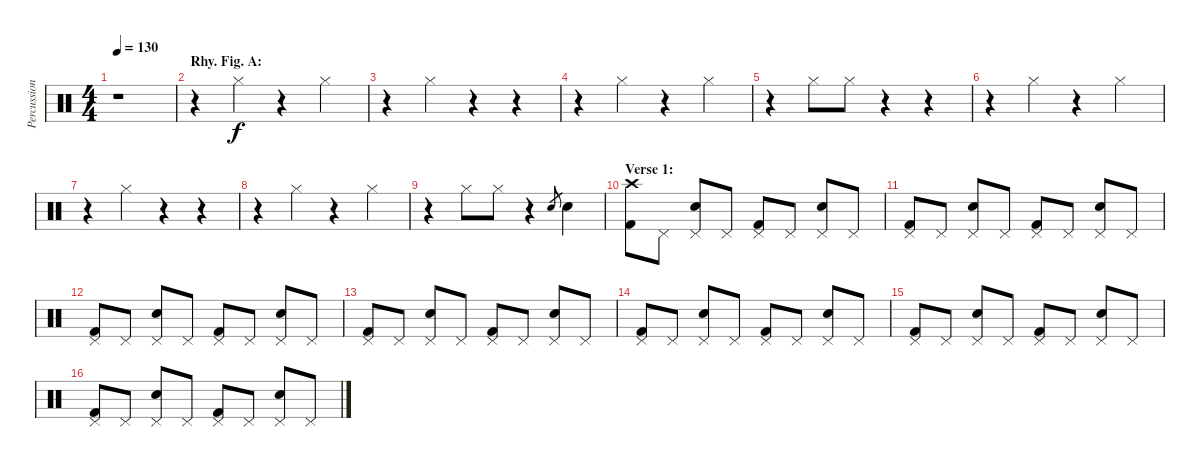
\track ("Percussion" "Percussion") {instrument percussion}
\staff {score}
\articulation defaults
\ts (4 4)
\tempo 130
\clef neutral
\ks c
r.1{dy f} |
\section ("" "Rhy. Fig. A:")
r.4 "Hi-Hat (closed)".4 r.4 "Hi-Hat (closed)".4 |
r.4 "Hi-Hat (closed)".4 r.4 r.4 |
r.4 "Hi-Hat (closed)".4 r.4 "Hi-Hat (closed)".4 |
r.4 "Hi-Hat (closed)".8 "Hi-Hat (closed)".8 r.4 r.4 |
r.4 "Hi-Hat (closed)".4 r.4 "Hi-Hat (closed)".4 |
r.4 "Hi-Hat (closed)".4 r.4 r.4 |
r.4 "Hi-Hat (closed)".4 r.4 "Hi-Hat (closed)".4 |
r.4 "Hi-Hat (closed)".8 "Hi-Hat (closed)".8 r.4 "Electric Snare (hit)".8{gr} "Electric Snare (hit)".4 |
\section ("" "Verse 1:")
("Crash high (hit)" "Kick (hit) 2").8 "Pedal Hi-Hat (hit)".8 ("Pedal Hi-Hat (hit)" "Electric Snare (hit)").8 "Pedal Hi-Hat (hit)".8 ("Pedal Hi-Hat (hit)" "Kick (hit) 2").8 "Pedal Hi-Hat (hit)".8 ("Pedal Hi-Hat (hit)" "Electric Snare (hit)").8 "Pedal Hi-Hat (hit)".8 |
("Pedal Hi-Hat (hit)" "Kick (hit) 2").8 "Pedal Hi-Hat (hit)".8 ("Pedal Hi-Hat (hit)" "Electric Snare (hit)").8 "Pedal Hi-Hat (hit)".8 ("Pedal Hi-Hat (hit)" "Kick (hit) 2").8 "Pedal Hi-Hat (hit)".8 ("Pedal Hi-Hat (hit)" "Electric Snare (hit)").8 "Pedal Hi-Hat (hit)".8 |
("Pedal Hi-Hat (hit)" "Kick (hit) 2").8 "Pedal Hi-Hat (hit)".8 ("Pedal Hi-Hat (hit)" "Electric Snare (hit)").8 "Pedal Hi-Hat (hit)".8 ("Pedal Hi-Hat (hit)" "Kick (hit) 2").8 "Pedal Hi-Hat (hit)".8 ("Pedal Hi-Hat (hit)" "Electric Snare (hit)").8 "Pedal Hi-Hat (hit)".8 |
("Pedal Hi-Hat (hit)" "Kick (hit) 2").8 "Pedal Hi-Hat (hit)".8 ("Pedal Hi-Hat (hit)" "Electric Snare (hit)").8 "Pedal Hi-Hat (hit)".8 ("Pedal Hi-Hat (hit)" "Kick (hit) 2").8 "Pedal Hi-Hat (hit)".8 ("Pedal Hi-Hat (hit)" "Electric Snare (hit)").8 "Pedal Hi-Hat (hit)".8 |
("Pedal Hi-Hat (hit)" "Kick (hit) 2").8 "Pedal Hi-Hat (hit)".8 ("Pedal Hi-Hat (hit)" "Electric Snare (hit)").8 "Pedal Hi-Hat (hit)".8 ("Pedal Hi-Hat (hit)" "Kick (hit) 2").8 "Pedal Hi-Hat (hit)".8 ("Pedal Hi-Hat (hit)" "Electric Snare (hit)").8 "Pedal Hi-Hat (hit)".8 |
("Pedal Hi-Hat (hit)" "Kick (hit) 2").8 "Pedal Hi-Hat (hit)".8 ("Pedal Hi-Hat (hit)" "Electric Snare (hit)").8 "Pedal Hi-Hat (hit)".8 ("Pedal Hi-Hat (hit)" "Kick (hit) 2").8 "Pedal Hi-Hat (hit)".8 ("Pedal Hi-Hat (hit)" "Electric Snare (hit)").8 "Pedal Hi-Hat (hit)".8 |
("Pedal Hi-Hat (hit)" "Kick (hit) 2").8 "Pedal Hi-Hat (hit)".8 ("Pedal Hi-Hat (hit)" "Electric Snare (hit)").8 "Pedal Hi-Hat (hit)".8 ("Pedal Hi-Hat (hit)" "Kick (hit) 2").8 "Pedal Hi-Hat (hit)".8 ("Pedal Hi-Hat (hit)" "Electric Snare (hit)").8 "Pedal Hi-Hat (hit)".8
